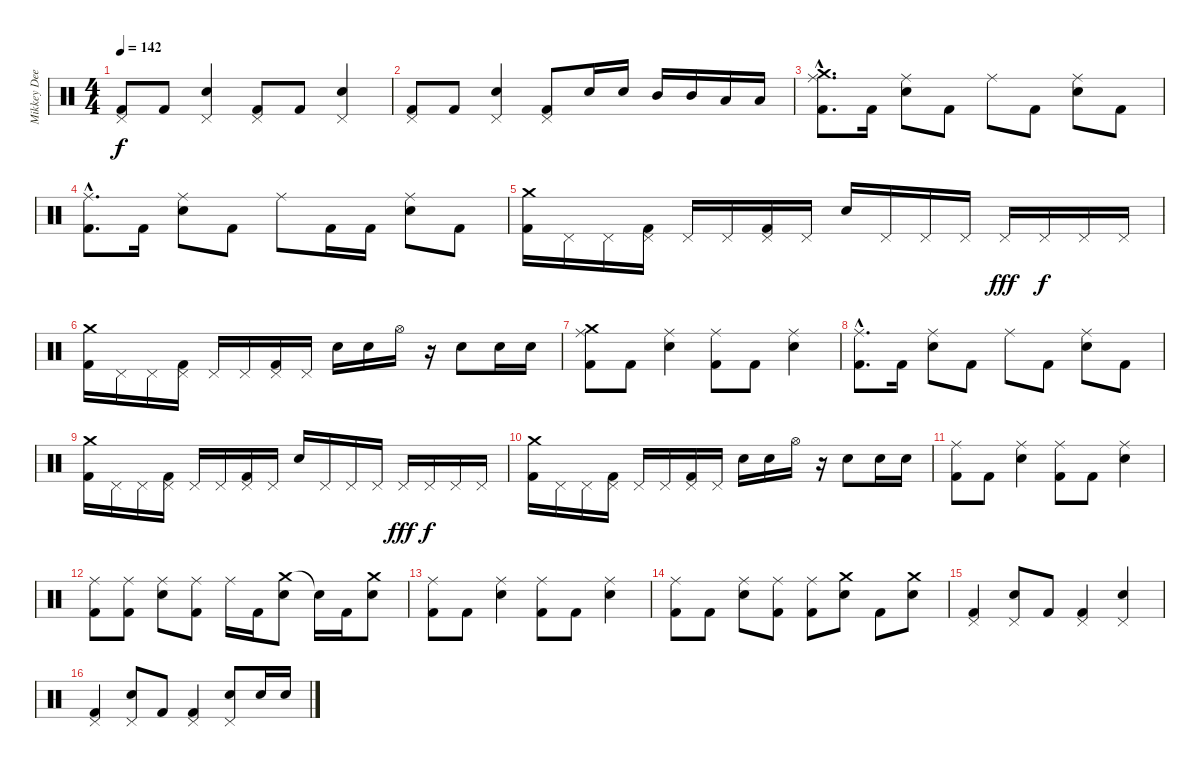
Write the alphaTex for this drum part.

\track ("Mikkey Dee" "Mikkey Dee") {instrument percussion}
\staff {score}
\articulation defaults
\ts (4 4)
\tempo 142
\clef neutral
\ks c
("Kick (hit) 2" "Pedal Hi-Hat (hit)").8{dy f} "Kick (hit) 2".8 ("Pedal Hi-Hat (hit)" "Snare (hit) 2").4 ("Kick (hit) 2" "Pedal Hi-Hat (hit)").8 "Kick (hit) 2".8 ("Pedal Hi-Hat (hit)" "Snare (hit) 2").4 |
("Kick (hit) 2" "Pedal Hi-Hat (hit)").8 "Kick (hit) 2".8 ("Pedal Hi-Hat (hit)" "Snare (hit) 2").4 ("Kick (hit) 2" "Pedal Hi-Hat (hit)").8 "Snare (hit) 2".16 "Snare (hit) 2".16 "Mid Tom (hit)".16 "Mid Tom (hit)".16 "Low Tom (hit)".16 "Low Tom (hit)".16 |
("Kick (hit) 2"{hac} "Ride (middle)"{hac} "Crash medium (hit)"{hac}).8{d} "Kick (hit) 2".16 ("Ride (middle)" "Snare (hit) 2").8 "Kick (hit) 2".8 "Ride (middle)".8 "Kick (hit) 2".8 ("Ride (middle)" "Snare (hit) 2").8 "Kick (hit) 2".8 |
("Kick (hit) 2"{hac} "Ride (middle)"{hac}).8{d} "Kick (hit) 2".16 ("Ride (middle)" "Snare (hit) 2").8 "Kick (hit) 2".8 "Ride (middle)".8 "Kick (hit) 2".16 "Kick (hit) 2".16 ("Ride (middle)" "Snare (hit) 2").8 "Kick (hit) 2".8 |
("Kick (hit) 2" "Crash medium (hit)").16 "Pedal Hi-Hat (hit)".16 "Pedal Hi-Hat (hit)".16 ("Kick (hit) 2" "Pedal Hi-Hat (hit)").16 "Pedal Hi-Hat (hit)".16 "Pedal Hi-Hat (hit)".16 ("Kick (hit) 2" "Pedal Hi-Hat (hit)").16 "Pedal Hi-Hat (hit)".16 "Snare (hit) 2".16 "Pedal Hi-Hat (hit)".16 "Pedal Hi-Hat (hit)".16 "Pedal Hi-Hat (hit)".16 "Pedal Hi-Hat (hit)".16{dy fff} "Pedal Hi-Hat (hit)".16{dy f} "Pedal Hi-Hat (hit)".16 "Pedal Hi-Hat (hit)".16 |
("Kick (hit) 2" "Crash medium (hit)").16 "Pedal Hi-Hat (hit)".16 "Pedal Hi-Hat (hit)".16 ("Kick (hit) 2" "Pedal Hi-Hat (hit)").16 "Pedal Hi-Hat (hit)".16 "Pedal Hi-Hat (hit)".16 ("Kick (hit) 2" "Pedal Hi-Hat (hit)").16 "Pedal Hi-Hat (hit)".16 "Snare (hit) 2".16 "Snare (hit) 2".16 "Hi-Hat (open)".16 r.16 "Snare (hit) 2".8 "Snare (hit) 2".16 "Snare (hit) 2".16 |
("Kick (hit) 2" "Ride (middle)" "Crash medium (hit)").8 "Kick (hit) 2".8 ("Ride (middle)" "Snare (hit) 2").4 ("Kick (hit) 2" "Ride (middle)").8 "Kick (hit) 2".8 ("Ride (middle)" "Snare (hit) 2").4 |
("Kick (hit) 2"{hac} "Ride (middle)"{hac}).8{d} "Kick (hit) 2".16 ("Ride (middle)" "Snare (hit) 2").8 "Kick (hit) 2".8 "Ride (middle)".8 "Kick (hit) 2".8 ("Ride (middle)" "Snare (hit) 2").8 "Kick (hit) 2".8 |
("Kick (hit) 2" "Crash medium (hit)").16 "Pedal Hi-Hat (hit)".16 "Pedal Hi-Hat (hit)".16 ("Kick (hit) 2" "Pedal Hi-Hat (hit)").16 "Pedal Hi-Hat (hit)".16 "Pedal Hi-Hat (hit)".16 ("Kick (hit) 2" "Pedal Hi-Hat (hit)").16 "Pedal Hi-Hat (hit)".16 "Snare (hit) 2".16 "Pedal Hi-Hat (hit)".16 "Pedal Hi-Hat (hit)".16 "Pedal Hi-Hat (hit)".16 "Pedal Hi-Hat (hit)".16{dy fff} "Pedal Hi-Hat (hit)".16{dy f} "Pedal Hi-Hat (hit)".16 "Pedal Hi-Hat (hit)".16 |
("Kick (hit) 2" "Crash medium (hit)").16 "Pedal Hi-Hat (hit)".16 "Pedal Hi-Hat (hit)".16 ("Kick (hit) 2" "Pedal Hi-Hat (hit)").16 "Pedal Hi-Hat (hit)".16 "Pedal Hi-Hat (hit)".16 ("Kick (hit) 2" "Pedal Hi-Hat (hit)").16 "Pedal Hi-Hat (hit)".16 "Snare (hit) 2".16 "Snare (hit) 2".16 "Hi-Hat (open)".16 r.16 "Snare (hit) 2".8 "Snare (hit) 2".16 "Snare (hit) 2".16 |
("Kick (hit) 2" "Ride (middle)").8 "Kick (hit) 2".8 ("Ride (middle)" "Snare (hit) 2").4 ("Kick (hit) 2" "Ride (middle)").8 "Kick (hit) 2".8 ("Ride (middle)" "Snare (hit) 2").4 |
("Kick (hit) 2" "Ride (middle)").8 ("Kick (hit) 2" "Ride (middle)").8 ("Ride (middle)" "Snare (hit) 2").8 ("Kick (hit) 2" "Ride (middle)").8 "Ride (middle)".16 "Kick (hit) 2".16 ("Crash medium (hit)" "Snare (hit) 2").8 "Snare (hit)"{t}.16 "Kick (hit) 2".16 ("Crash medium (hit)" "Snare (hit) 2").8 |
("Kick (hit) 2" "Ride (middle)").8 "Kick (hit) 2".8 ("Ride (middle)" "Snare (hit) 2").4 ("Kick (hit) 2" "Ride (middle)").8 "Kick (hit) 2".8 ("Ride (middle)" "Snare (hit) 2").4 |
("Kick (hit) 2" "Ride (middle)").8 "Kick (hit) 2".8 ("Ride (middle)" "Snare (hit) 2").8 ("Kick (hit) 2" "Ride (middle)").8 ("Kick (hit) 2" "Ride (middle)").8 ("Crash medium (hit)" "Snare (hit) 2").8 "Kick (hit) 2".8 ("Crash medium (hit)" "Snare (hit) 2").8 |
("Kick (hit) 2" "Pedal Hi-Hat (hit)").4 ("Pedal Hi-Hat (hit)" "Snare (hit) 2").8 "Kick (hit) 2".8 ("Kick (hit) 2" "Pedal Hi-Hat (hit)").4 ("Pedal Hi-Hat (hit)" "Snare (hit) 2").4 |
("Kick (hit) 2" "Pedal Hi-Hat (hit)").4 ("Pedal Hi-Hat (hit)" "Snare (hit) 2").8 "Kick (hit) 2".8 ("Kick (hit) 2" "Pedal Hi-Hat (hit)").4 ("Pedal Hi-Hat (hit)" "Snare (hit) 2").8 "Snare (hit) 2".16 "Snare (hit) 2".16
